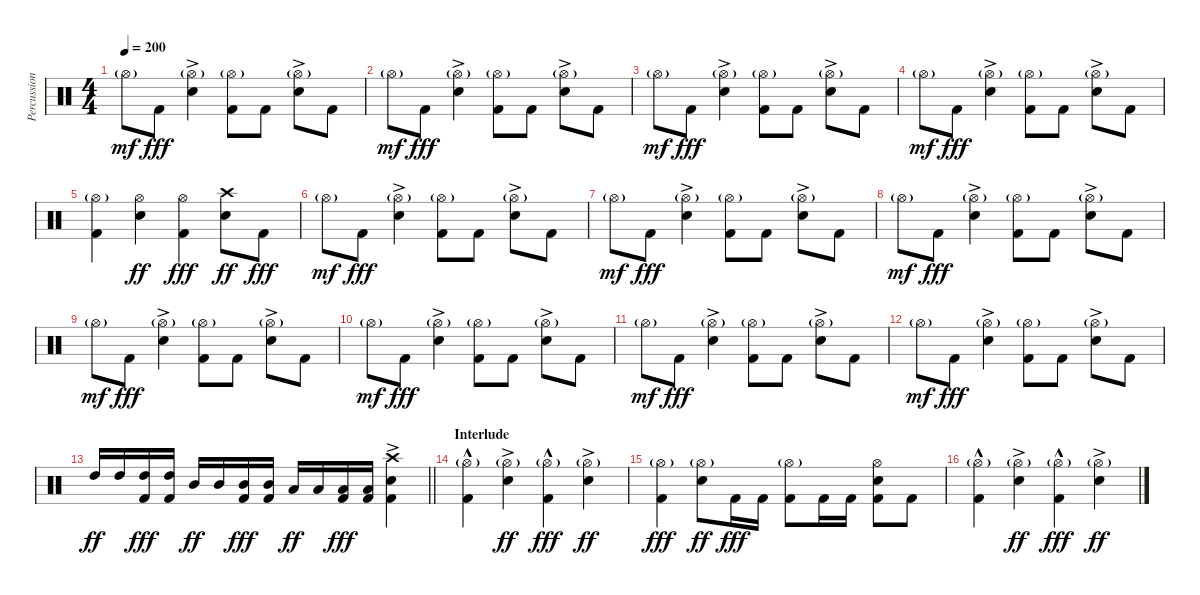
\track ("Percussion , Drums - Travis Smith" "Percussion") {instrument percussion}
\staff {score}
\articulation defaults
\ts (4 4)
\tempo 200
\clef neutral
\ks c "Hi-Hat (open)"{g}.8{dy mf} "Kick (hit) 2".8{dy fff}
("Hi-Hat (open)"{g} "Electric Snare (hit)"{ac}).4 ("Hi-Hat (open)"{g} "Kick (hit) 2").8 "Kick (hit) 2".8 ("Hi-Hat (open)"{g} "Electric Snare (hit)"{ac}).8 "Kick (hit) 2".8 |
"Hi-Hat (open)"{g}.8{dy mf} "Kick (hit) 2".8{dy fff} ("Hi-Hat (open)"{g} "Electric Snare (hit)"{ac}).4 ("Hi-Hat (open)"{g} "Kick (hit) 2").8 "Kick (hit) 2".8 ("Hi-Hat (open)"{g} "Electric Snare (hit)"{ac}).8 "Kick (hit) 2".8 |
"Hi-Hat (open)"{g}.8{dy mf} "Kick (hit) 2".8{dy fff} ("Hi-Hat (open)"{g} "Electric Snare (hit)"{ac}).4 ("Hi-Hat (open)"{g} "Kick (hit) 2").8 "Kick (hit) 2".8 ("Hi-Hat (open)"{g} "Electric Snare (hit)"{ac}).8 "Kick (hit) 2".8 |
"Hi-Hat (open)"{g}.8{dy mf} "Kick (hit) 2".8{dy fff} ("Hi-Hat (open)"{g} "Electric Snare (hit)"{ac}).4 ("Hi-Hat (open)"{g} "Kick (hit) 2").8 "Kick (hit) 2".8 ("Hi-Hat (open)"{g} "Electric Snare (hit)"{ac}).8 "Kick (hit) 2".8 |
("Hi-Hat (open)"{g} "Kick (hit) 2").4 ("Hi-Hat (open)" "Electric Snare (hit)").4{dy ff} ("Hi-Hat (open)" "Kick (hit) 2").4{dy fff} ("Crash high (hit)" "Electric Snare (hit)").8{dy ff} "Kick (hit) 2".8{dy fff} |
"Hi-Hat (open)"{g}.8{dy mf} "Kick (hit) 2".8{dy fff} ("Hi-Hat (open)"{g} "Electric Snare (hit)"{ac}).4 ("Hi-Hat (open)"{g} "Kick (hit) 2").8 "Kick (hit) 2".8 ("Hi-Hat (open)"{g} "Electric Snare (hit)"{ac}).8 "Kick (hit) 2".8 |
"Hi-Hat (open)"{g}.8{dy mf} "Kick (hit) 2".8{dy fff} ("Hi-Hat (open)"{g} "Electric Snare (hit)"{ac}).4 ("Hi-Hat (open)"{g} "Kick (hit) 2").8 "Kick (hit) 2".8 ("Hi-Hat (open)"{g} "Electric Snare (hit)"{ac}).8 "Kick (hit) 2".8 |
"Hi-Hat (open)"{g}.8{dy mf} "Kick (hit) 2".8{dy fff} ("Hi-Hat (open)"{g} "Electric Snare (hit)"{ac}).4 ("Hi-Hat (open)"{g} "Kick (hit) 2").8 "Kick (hit) 2".8 ("Hi-Hat (open)"{g} "Electric Snare (hit)"{ac}).8 "Kick (hit) 2".8 |
"Hi-Hat (open)"{g}.8{dy mf} "Kick (hit) 2".8{dy fff} ("Hi-Hat (open)"{g} "Electric Snare (hit)"{ac}).4 ("Hi-Hat (open)"{g} "Kick (hit) 2").8 "Kick (hit) 2".8 ("Hi-Hat (open)"{g} "Electric Snare (hit)"{ac}).8 "Kick (hit) 2".8 |
"Hi-Hat (open)"{g}.8{dy mf} "Kick (hit) 2".8{dy fff} ("Hi-Hat (open)"{g} "Electric Snare (hit)"{ac}).4 ("Hi-Hat (open)"{g} "Kick (hit) 2").8 "Kick (hit) 2".8 ("Hi-Hat (open)"{g} "Electric Snare (hit)"{ac}).8 "Kick (hit) 2".8 |
"Hi-Hat (open)"{g}.8{dy mf} "Kick (hit) 2".8{dy fff} ("Hi-Hat (open)"{g} "Electric Snare (hit)"{ac}).4 ("Hi-Hat (open)"{g} "Kick (hit) 2").8 "Kick (hit) 2".8 ("Hi-Hat (open)"{g} "Electric Snare (hit)"{ac}).8 "Kick (hit) 2".8 |
"Hi-Hat (open)"{g}.8{dy mf} "Kick (hit) 2".8{dy fff} ("Hi-Hat (open)"{g} "Electric Snare (hit)"{ac}).4 ("Hi-Hat (open)"{g} "Kick (hit) 2").8 "Kick (hit) 2".8 ("Hi-Hat (open)"{g} "Electric Snare (hit)"{ac}).8 "Kick (hit) 2".8 |
\barLineRight lightlight "High Tom (hit)".16{dy ff} "High Tom (hit)".16
("High Tom (hit)" "Kick (hit) 2").16{dy fff} ("High Tom (hit)" "Kick (hit) 2").16 "Mid Tom (hit)".16{dy ff} "Mid Tom (hit)".16 ("Mid Tom (hit)" "Kick (hit) 2").16{dy fff} ("Mid Tom (hit)" "Kick (hit) 2").16 "Low Tom (hit)".16{dy ff} "Low Tom (hit)".16 ("Low Tom (hit)" "Kick (hit) 2").16{dy fff} ("Low Tom (hit)" "Kick (hit) 2").16 ("Crash high (hit)"{ac} "Electric Snare (hit)"{ac} "Kick (hit) 2").4 |
\section ("" "Interlude")
("Hi-Hat (open)"{g} "Kick (hit) 2"{hac}).4 ("Hi-Hat (open)"{g} "Electric Snare (hit)"{ac}).4{dy ff} ("Hi-Hat (open)"{g} "Kick (hit) 2"{hac}).4{dy fff} ("Hi-Hat (open)"{g} "Electric Snare (hit)"{ac}).4{dy ff} |
("Hi-Hat (open)"{g} "Kick (hit) 2").4{dy fff} ("Hi-Hat (open)"{g} "Electric Snare (hit)").8{dy ff} "Kick (hit) 2".16{dy fff} "Kick (hit) 2".16 ("Hi-Hat (open)"{g} "Kick (hit) 2").8 "Kick (hit) 2".16 "Kick (hit) 2".16 ("Hi-Hat (open)" "Electric Snare (hit)" "Kick (hit) 2").8 "Kick (hit) 2".8 |
("Hi-Hat (open)"{g} "Kick (hit) 2"{hac}).4 ("Hi-Hat (open)"{g} "Electric Snare (hit)"{ac}).4{dy ff} ("Hi-Hat (open)"{g} "Kick (hit) 2"{hac}).4{dy fff} ("Hi-Hat (open)"{g} "Electric Snare (hit)"{ac}).4{dy ff}
